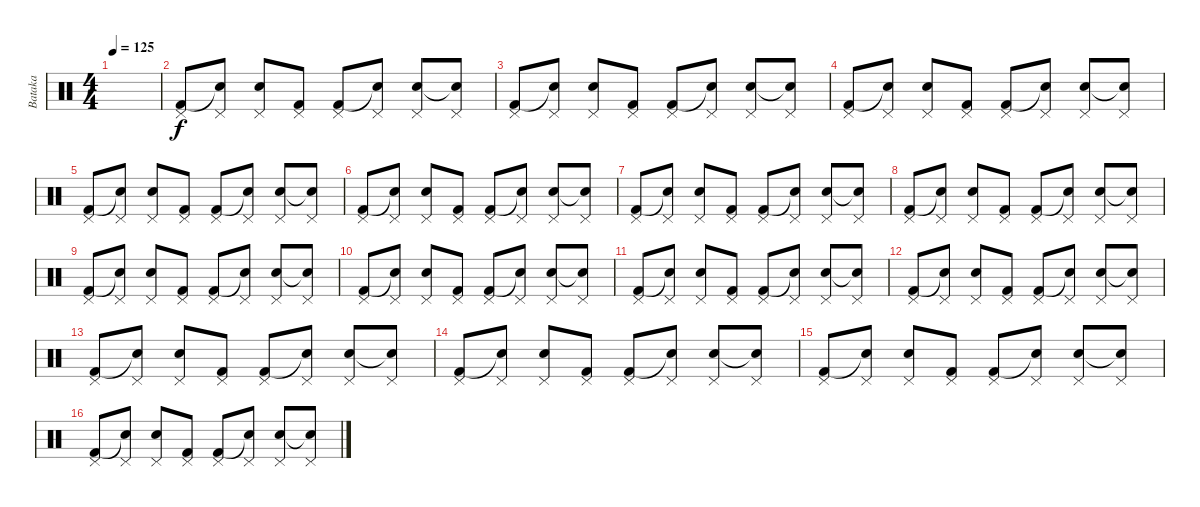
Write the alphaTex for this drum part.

\track ("Bataka" "Bataka") {instrument percussion}
\staff {score}
\articulation defaults
\ts (4 4)
\tempo 125
\clef neutral
\ks c
|
("Pedal Hi-Hat (hit)" "Kick (hit) 2").8 ("Pedal Hi-Hat (hit)" "Snare (hit)"{t}).8 ("Pedal Hi-Hat (hit)" "Electric Snare (hit)").8 ("Pedal Hi-Hat (hit)" "Kick (hit) 2").8 ("Pedal Hi-Hat (hit)" "Kick (hit) 2").8 ("Pedal Hi-Hat (hit)" "Snare (hit)"{t}).8 ("Pedal Hi-Hat (hit)" "Electric Snare (hit)").8 ("Pedal Hi-Hat (hit)" "Snare (hit)"{t}).8 |
("Pedal Hi-Hat (hit)" "Kick (hit) 2").8 ("Pedal Hi-Hat (hit)" "Snare (hit)"{t}).8 ("Pedal Hi-Hat (hit)" "Electric Snare (hit)").8 ("Pedal Hi-Hat (hit)" "Kick (hit) 2").8 ("Pedal Hi-Hat (hit)" "Kick (hit) 2").8 ("Pedal Hi-Hat (hit)" "Snare (hit)"{t}).8 ("Pedal Hi-Hat (hit)" "Electric Snare (hit)").8 ("Pedal Hi-Hat (hit)" "Snare (hit)"{t}).8 |
("Pedal Hi-Hat (hit)" "Kick (hit) 2").8 ("Pedal Hi-Hat (hit)" "Snare (hit)"{t}).8 ("Pedal Hi-Hat (hit)" "Electric Snare (hit)").8 ("Pedal Hi-Hat (hit)" "Kick (hit) 2").8 ("Pedal Hi-Hat (hit)" "Kick (hit) 2").8 ("Pedal Hi-Hat (hit)" "Snare (hit)"{t}).8 ("Pedal Hi-Hat (hit)" "Electric Snare (hit)").8 ("Pedal Hi-Hat (hit)" "Snare (hit)"{t}).8 |
("Pedal Hi-Hat (hit)" "Kick (hit) 2").8 ("Pedal Hi-Hat (hit)" "Snare (hit)"{t}).8 ("Pedal Hi-Hat (hit)" "Electric Snare (hit)").8 ("Pedal Hi-Hat (hit)" "Kick (hit) 2").8 ("Pedal Hi-Hat (hit)" "Kick (hit) 2").8 ("Pedal Hi-Hat (hit)" "Snare (hit)"{t}).8 ("Pedal Hi-Hat (hit)" "Electric Snare (hit)").8 ("Pedal Hi-Hat (hit)" "Snare (hit)"{t}).8 |
("Pedal Hi-Hat (hit)" "Kick (hit) 2").8 ("Pedal Hi-Hat (hit)" "Snare (hit)"{t}).8 ("Pedal Hi-Hat (hit)" "Electric Snare (hit)").8 ("Pedal Hi-Hat (hit)" "Kick (hit) 2").8 ("Pedal Hi-Hat (hit)" "Kick (hit) 2").8 ("Pedal Hi-Hat (hit)" "Snare (hit)"{t}).8 ("Pedal Hi-Hat (hit)" "Electric Snare (hit)").8 ("Pedal Hi-Hat (hit)" "Snare (hit)"{t}).8 |
("Pedal Hi-Hat (hit)" "Kick (hit) 2").8 ("Pedal Hi-Hat (hit)" "Snare (hit)"{t}).8 ("Pedal Hi-Hat (hit)" "Electric Snare (hit)").8 ("Pedal Hi-Hat (hit)" "Kick (hit) 2").8 ("Pedal Hi-Hat (hit)" "Kick (hit) 2").8 ("Pedal Hi-Hat (hit)" "Snare (hit)"{t}).8 ("Pedal Hi-Hat (hit)" "Electric Snare (hit)").8 ("Pedal Hi-Hat (hit)" "Snare (hit)"{t}).8 |
("Pedal Hi-Hat (hit)" "Kick (hit) 2").8 ("Pedal Hi-Hat (hit)" "Snare (hit)"{t}).8 ("Pedal Hi-Hat (hit)" "Electric Snare (hit)").8 ("Pedal Hi-Hat (hit)" "Kick (hit) 2").8 ("Pedal Hi-Hat (hit)" "Kick (hit) 2").8 ("Pedal Hi-Hat (hit)" "Snare (hit)"{t}).8 ("Pedal Hi-Hat (hit)" "Electric Snare (hit)").8 ("Pedal Hi-Hat (hit)" "Snare (hit)"{t}).8 |
("Pedal Hi-Hat (hit)" "Kick (hit) 2").8 ("Pedal Hi-Hat (hit)" "Snare (hit)"{t}).8 ("Pedal Hi-Hat (hit)" "Electric Snare (hit)").8 ("Pedal Hi-Hat (hit)" "Kick (hit) 2").8 ("Pedal Hi-Hat (hit)" "Kick (hit) 2").8 ("Pedal Hi-Hat (hit)" "Snare (hit)"{t}).8 ("Pedal Hi-Hat (hit)" "Electric Snare (hit)").8 ("Pedal Hi-Hat (hit)" "Snare (hit)"{t}).8 |
("Pedal Hi-Hat (hit)" "Kick (hit) 2").8 ("Pedal Hi-Hat (hit)" "Snare (hit)"{t}).8 ("Pedal Hi-Hat (hit)" "Electric Snare (hit)").8 ("Pedal Hi-Hat (hit)" "Kick (hit) 2").8 ("Pedal Hi-Hat (hit)" "Kick (hit) 2").8 ("Pedal Hi-Hat (hit)" "Snare (hit)"{t}).8 ("Pedal Hi-Hat (hit)" "Electric Snare (hit)").8 ("Pedal Hi-Hat (hit)" "Snare (hit)"{t}).8 |
("Pedal Hi-Hat (hit)" "Kick (hit) 2").8 ("Pedal Hi-Hat (hit)" "Snare (hit)"{t}).8 ("Pedal Hi-Hat (hit)" "Electric Snare (hit)").8 ("Pedal Hi-Hat (hit)" "Kick (hit) 2").8 ("Pedal Hi-Hat (hit)" "Kick (hit) 2").8 ("Pedal Hi-Hat (hit)" "Snare (hit)"{t}).8 ("Pedal Hi-Hat (hit)" "Electric Snare (hit)").8 ("Pedal Hi-Hat (hit)" "Snare (hit)"{t}).8 |
("Pedal Hi-Hat (hit)" "Kick (hit) 2").8 ("Pedal Hi-Hat (hit)" "Snare (hit)"{t}).8 ("Pedal Hi-Hat (hit)" "Electric Snare (hit)").8 ("Pedal Hi-Hat (hit)" "Kick (hit) 2").8 ("Pedal Hi-Hat (hit)" "Kick (hit) 2").8 ("Pedal Hi-Hat (hit)" "Snare (hit)"{t}).8 ("Pedal Hi-Hat (hit)" "Electric Snare (hit)").8 ("Pedal Hi-Hat (hit)" "Snare (hit)"{t}).8 |
("Pedal Hi-Hat (hit)" "Kick (hit) 2").8 ("Pedal Hi-Hat (hit)" "Snare (hit)"{t}).8 ("Pedal Hi-Hat (hit)" "Electric Snare (hit)").8 ("Pedal Hi-Hat (hit)" "Kick (hit) 2").8 ("Pedal Hi-Hat (hit)" "Kick (hit) 2").8 ("Pedal Hi-Hat (hit)" "Snare (hit)"{t}).8 ("Pedal Hi-Hat (hit)" "Electric Snare (hit)").8 ("Pedal Hi-Hat (hit)" "Snare (hit)"{t}).8 |
("Pedal Hi-Hat (hit)" "Kick (hit) 2").8 ("Pedal Hi-Hat (hit)" "Snare (hit)"{t}).8 ("Pedal Hi-Hat (hit)" "Electric Snare (hit)").8 ("Pedal Hi-Hat (hit)" "Kick (hit) 2").8 ("Pedal Hi-Hat (hit)" "Kick (hit) 2").8 ("Pedal Hi-Hat (hit)" "Snare (hit)"{t}).8 ("Pedal Hi-Hat (hit)" "Electric Snare (hit)").8 ("Pedal Hi-Hat (hit)" "Snare (hit)"{t}).8 |
("Pedal Hi-Hat (hit)" "Kick (hit) 2").8 ("Pedal Hi-Hat (hit)" "Snare (hit)"{t}).8 ("Pedal Hi-Hat (hit)" "Electric Snare (hit)").8 ("Pedal Hi-Hat (hit)" "Kick (hit) 2").8 ("Pedal Hi-Hat (hit)" "Kick (hit) 2").8 ("Pedal Hi-Hat (hit)" "Snare (hit)"{t}).8 ("Pedal Hi-Hat (hit)" "Electric Snare (hit)").8 ("Pedal Hi-Hat (hit)" "Snare (hit)"{t}).8 |
("Pedal Hi-Hat (hit)" "Kick (hit) 2").8 ("Pedal Hi-Hat (hit)" "Snare (hit)"{t}).8 ("Pedal Hi-Hat (hit)" "Electric Snare (hit)").8 ("Pedal Hi-Hat (hit)" "Kick (hit) 2").8 ("Pedal Hi-Hat (hit)" "Kick (hit) 2").8 ("Pedal Hi-Hat (hit)" "Snare (hit)"{t}).8 ("Pedal Hi-Hat (hit)" "Electric Snare (hit)").8 ("Pedal Hi-Hat (hit)" "Snare (hit)"{t}).8
